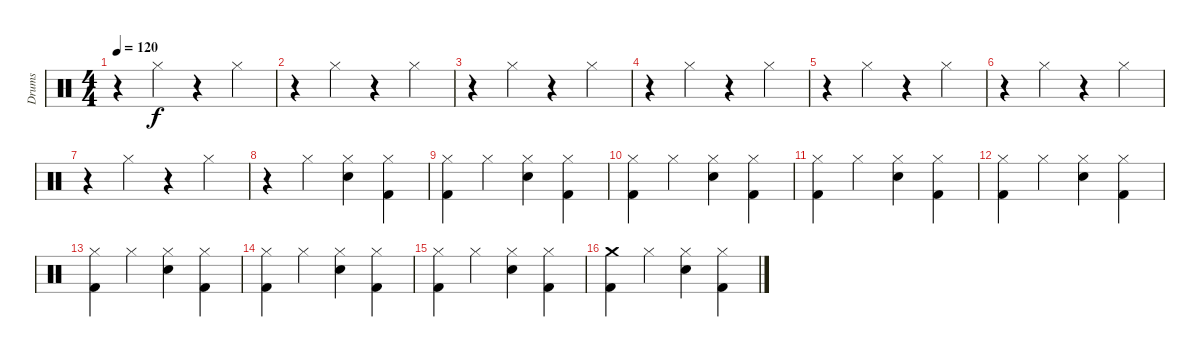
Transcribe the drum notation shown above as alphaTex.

\track ("Drums" "Drums") {instrument percussion}
\staff {score}
\articulation defaults
\ts (4 4)
\tempo 120
\clef neutral
\ks c
r.4{dy f} "Hi-Hat (closed)".4 r.4 "Hi-Hat (closed)".4 |
r.4 "Hi-Hat (closed)".4 r.4 "Hi-Hat (closed)".4 |
r.4 "Hi-Hat (closed)".4 r.4 "Hi-Hat (closed)".4 |
r.4 "Hi-Hat (closed)".4 r.4 "Hi-Hat (closed)".4 |
r.4 "Hi-Hat (closed)".4 r.4 "Hi-Hat (closed)".4 |
r.4 "Hi-Hat (closed)".4 r.4 "Hi-Hat (closed)".4 |
r.4 "Hi-Hat (closed)".4 r.4 "Hi-Hat (closed)".4 |
r.4 "Hi-Hat (closed)".4 ("Snare (hit) 2" "Hi-Hat (closed)").4 ("Kick (hit) 2" "Hi-Hat (closed)").4 |
("Kick (hit) 2" "Hi-Hat (closed)").4 "Hi-Hat (closed)".4 ("Snare (hit) 2" "Hi-Hat (closed)").4 ("Kick (hit) 2" "Hi-Hat (closed)").4 |
("Kick (hit) 2" "Hi-Hat (closed)").4 "Hi-Hat (closed)".4 ("Snare (hit) 2" "Hi-Hat (closed)").4 ("Kick (hit) 2" "Hi-Hat (closed)").4 |
("Kick (hit) 2" "Hi-Hat (closed)").4 "Hi-Hat (closed)".4 ("Snare (hit) 2" "Hi-Hat (closed)").4 ("Kick (hit) 2" "Hi-Hat (closed)").4 |
("Kick (hit) 2" "Hi-Hat (closed)").4 "Hi-Hat (closed)".4 ("Snare (hit) 2" "Hi-Hat (closed)").4 ("Kick (hit) 2" "Hi-Hat (closed)").4 |
("Kick (hit) 2" "Hi-Hat (closed)").4 "Hi-Hat (closed)".4 ("Snare (hit) 2" "Hi-Hat (closed)").4 ("Kick (hit) 2" "Hi-Hat (closed)").4 |
("Kick (hit) 2" "Hi-Hat (closed)").4 "Hi-Hat (closed)".4 ("Snare (hit) 2" "Hi-Hat (closed)").4 ("Kick (hit) 2" "Hi-Hat (closed)").4 |
("Kick (hit) 2" "Hi-Hat (closed)").4 "Hi-Hat (closed)".4 ("Snare (hit) 2" "Hi-Hat (closed)").4 ("Kick (hit) 2" "Hi-Hat (closed)").4 |
("Kick (hit) 2" "Crash medium (hit)").4 "Hi-Hat (closed)".4 ("Snare (hit) 2" "Hi-Hat (closed)").4 ("Kick (hit) 2" "Hi-Hat (closed)").4
